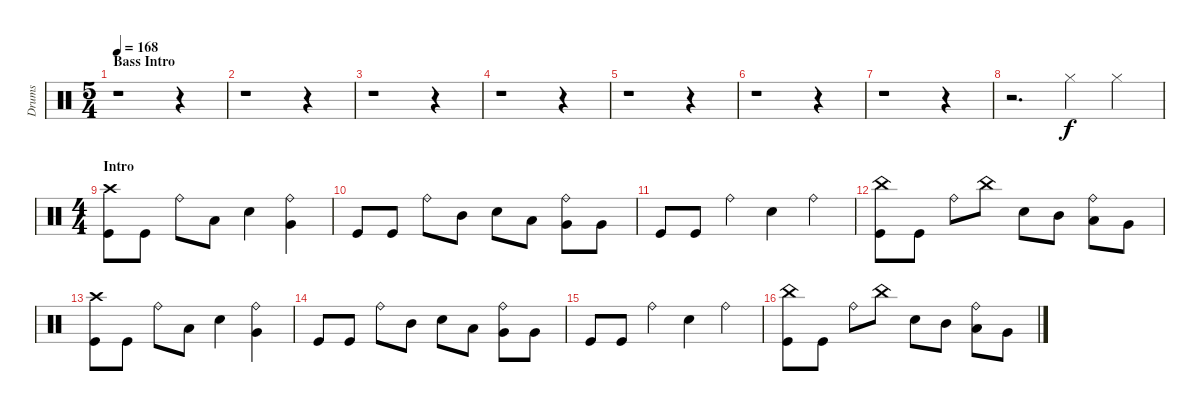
\track ("Drums" "Drums") {instrument percussion}
\staff {score}
\articulation defaults
\ts (5 4)
\section ("" "Bass Intro")
\tempo 168
\clef neutral
\ks c
r.1{dy f} r.4 |
r.1 r.4 |
r.1 r.4 |
r.1 r.4 |
r.1 r.4 |
r.1 r.4 |
r.1 r.4 |
r.2{d} "Hi-Hat (closed)".4 "Hi-Hat (closed)".4 |
\ts (4 4)
\section ("" "Intro")
("Crash high (hit)" "Kick (hit)").8 "Kick (hit)".8 "Ride (bell)".8 "Low Tom (hit)".8 "Electric Snare (hit)".4 ("Ride (bell)" "Very Low Tom (hit)").4 |
"Kick (hit)".8 "Kick (hit)".8 "Ride (bell)".8 "Mid Tom (hit)".8 "Electric Snare (hit)".8 "Low Tom (hit)".8 ("Ride (bell)" "Very Low Tom (hit)").8 "Very Low Tom (hit)".8 |
"Kick (hit)".8 "Kick (hit)".8 "Ride (bell)".4 "Electric Snare (hit)".4 "Ride (bell)".4 |
("China (hit)" "Kick (hit)").8 "Kick (hit)".8 "Ride (bell)".8 "China (hit)".8 "Electric Snare (hit)".8 "Mid Tom (hit)".8 ("Ride (bell)" "Low Tom (hit)").8 "Very Low Tom (hit)".8 |
("Crash high (hit)" "Kick (hit)").8 "Kick (hit)".8 "Ride (bell)".8 "Low Tom (hit)".8 "Electric Snare (hit)".4 ("Ride (bell)" "Very Low Tom (hit)").4 |
"Kick (hit)".8 "Kick (hit)".8 "Ride (bell)".8 "Mid Tom (hit)".8 "Electric Snare (hit)".8 "Low Tom (hit)".8 ("Ride (bell)" "Very Low Tom (hit)").8 "Very Low Tom (hit)".8 |
"Kick (hit)".8 "Kick (hit)".8 "Ride (bell)".4 "Electric Snare (hit)".4 "Ride (bell)".4 |
("China (hit)" "Kick (hit)").8 "Kick (hit)".8 "Ride (bell)".8 "China (hit)".8 "Electric Snare (hit)".8 "Mid Tom (hit)".8 ("Ride (bell)" "Low Tom (hit)").8 "Very Low Tom (hit)".8
